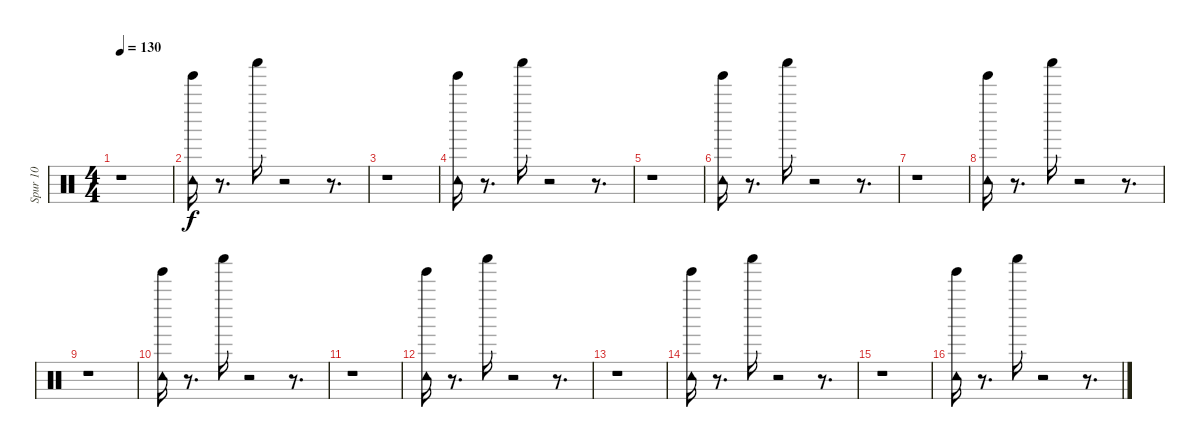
\track ("Spur 10" "Spur 10") {instrument percussion}
\staff {score}
\articulation defaults
\ts (4 4)
\tempo 130
\clef neutral
\ks c
r.1{dy f} |
("Tambourine (hit)" "Tinkle Bell (hit)").16 r.8{d} "Shaker (hit)".16 r.2 r.8{d} |
r.1 |
("Tambourine (hit)" "Tinkle Bell (hit)").16 r.8{d} "Shaker (hit)".16 r.2 r.8{d} |
r.1 |
("Tambourine (hit)" "Tinkle Bell (hit)").16 r.8{d} "Shaker (hit)".16 r.2 r.8{d} |
r.1 |
("Tambourine (hit)" "Tinkle Bell (hit)").16 r.8{d} "Shaker (hit)".16 r.2 r.8{d} |
r.1 |
("Tambourine (hit)" "Tinkle Bell (hit)").16 r.8{d} "Shaker (hit)".16 r.2 r.8{d} |
r.1 |
("Tambourine (hit)" "Tinkle Bell (hit)").16 r.8{d} "Shaker (hit)".16 r.2 r.8{d} |
r.1 |
("Tambourine (hit)" "Tinkle Bell (hit)").16 r.8{d} "Shaker (hit)".16 r.2 r.8{d} |
r.1 |
("Tambourine (hit)" "Tinkle Bell (hit)").16 r.8{d} "Shaker (hit)".16 r.2 r.8{d}
